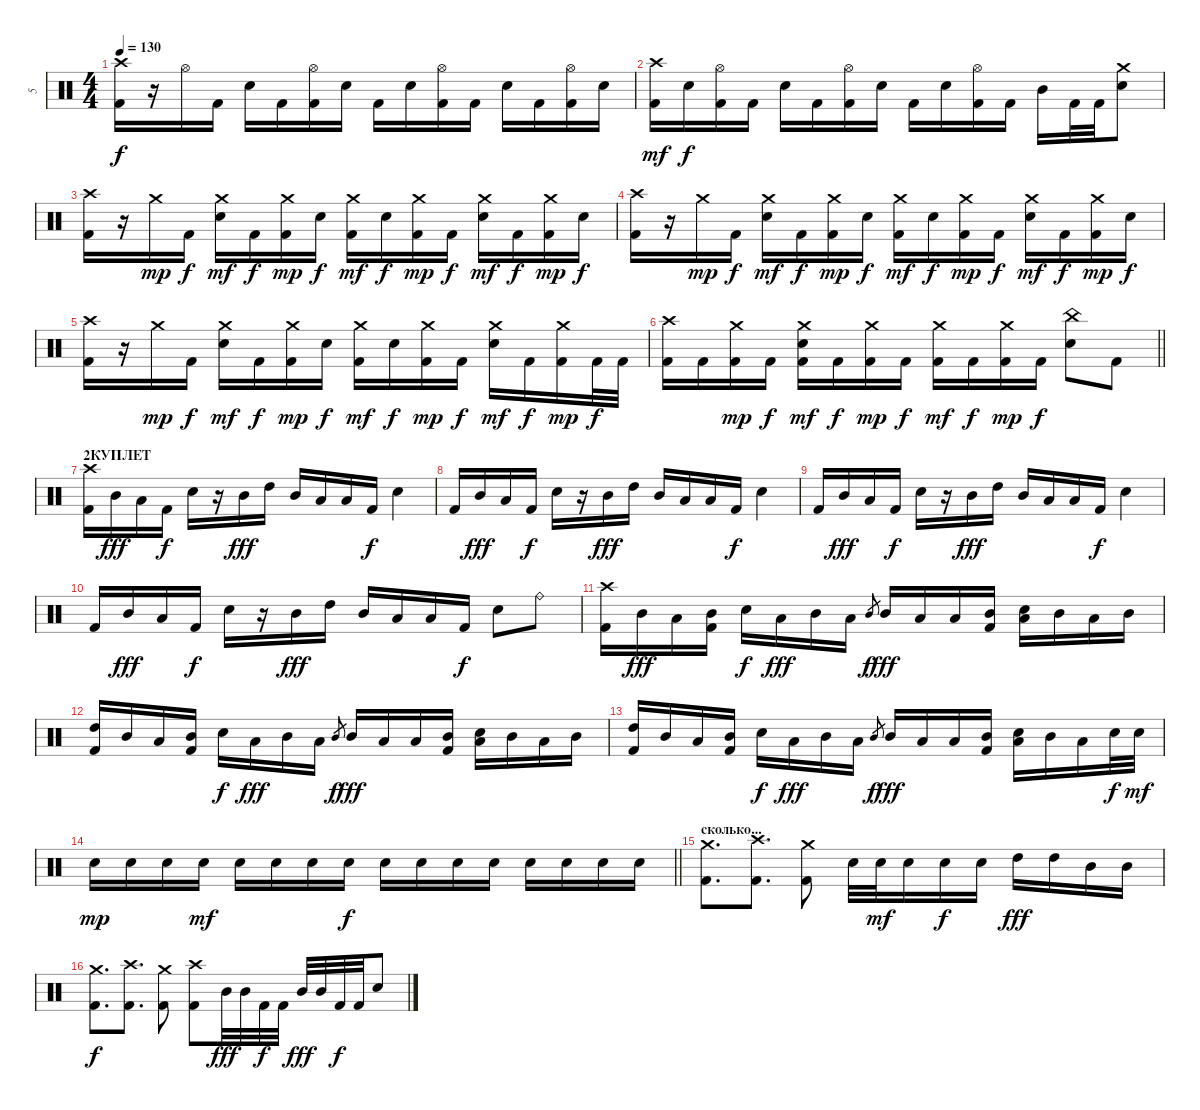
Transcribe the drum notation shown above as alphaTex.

\track ("5" "5") {instrument percussion}
\staff {score}
\articulation defaults
\ts (4 4)
\tempo 130
\clef neutral
\ks c
("Crash high (hit)" "Kick (hit) 2").16{dy f} r.16 "Hi-Hat (open)".16 "Kick (hit) 2".16 "Electric Snare (hit)".16 "Kick (hit) 2".16 ("Hi-Hat (open)" "Kick (hit) 2").16 "Electric Snare (hit)".16 "Kick (hit) 2".16 "Electric Snare (hit)".16 ("Hi-Hat (open)" "Kick (hit) 2").16 "Kick (hit) 2".16 "Electric Snare (hit)".16 "Kick (hit) 2".16 ("Hi-Hat (open)" "Kick (hit) 2").16 "Electric Snare (hit)".16 |
("Crash high (hit)" "Kick (hit) 2").16{dy mf} "Electric Snare (hit)".16{dy f} ("Hi-Hat (open)" "Kick (hit) 2").16 "Kick (hit) 2".16 "Electric Snare (hit)".16 "Kick (hit) 2".16 ("Hi-Hat (open)" "Kick (hit) 2").16 "Electric Snare (hit)".16 "Kick (hit) 2".16 "Electric Snare (hit)".16 ("Hi-Hat (open)" "Kick (hit) 2").16 "Kick (hit) 2".16 "Mid Tom (hit)".16 "Kick (hit) 2".32 "Kick (hit) 2".32 ("Crash medium (hit)" "Electric Snare (hit)").8 |
("Crash high (hit)" "Kick (hit) 2").16 r.16 "Crash medium (hit)".16{dy mp} "Kick (hit) 2".16{dy f} ("Crash medium (hit)" "Electric Snare (hit)").16{dy mf} "Kick (hit) 2".16{dy f} ("Crash medium (hit)" "Kick (hit) 2").16{dy mp} "Electric Snare (hit)".16{dy f} ("Crash medium (hit)" "Kick (hit) 2").16{dy mf} "Electric Snare (hit)".16{dy f} ("Crash medium (hit)" "Kick (hit) 2").16{dy mp} "Kick (hit) 2".16{dy f} ("Crash medium (hit)" "Electric Snare (hit)").16{dy mf} "Kick (hit) 2".16{dy f} ("Crash medium (hit)" "Kick (hit) 2").16{dy mp} "Electric Snare (hit)".16{dy f} |
("Crash high (hit)" "Kick (hit) 2").16 r.16 "Crash medium (hit)".16{dy mp} "Kick (hit) 2".16{dy f} ("Crash medium (hit)" "Electric Snare (hit)").16{dy mf} "Kick (hit) 2".16{dy f} ("Crash medium (hit)" "Kick (hit) 2").16{dy mp} "Electric Snare (hit)".16{dy f} ("Crash medium (hit)" "Kick (hit) 2").16{dy mf} "Electric Snare (hit)".16{dy f} ("Crash medium (hit)" "Kick (hit) 2").16{dy mp} "Kick (hit) 2".16{dy f} ("Crash medium (hit)" "Electric Snare (hit)").16{dy mf} "Kick (hit) 2".16{dy f} ("Crash medium (hit)" "Kick (hit) 2").16{dy mp} "Electric Snare (hit)".16{dy f} |
("Crash high (hit)" "Kick (hit) 2").16 r.16 "Crash medium (hit)".16{dy mp} "Kick (hit) 2".16{dy f} ("Crash medium (hit)" "Electric Snare (hit)").16{dy mf} "Kick (hit) 2".16{dy f} ("Crash medium (hit)" "Kick (hit) 2").16{dy mp} "Electric Snare (hit)".16{dy f} ("Crash medium (hit)" "Kick (hit) 2").16{dy mf} "Electric Snare (hit)".16{dy f} ("Crash medium (hit)" "Kick (hit) 2").16{dy mp} "Kick (hit) 2".16{dy f} ("Crash medium (hit)" "Electric Snare (hit)").16{dy mf} "Kick (hit) 2".16{dy f} ("Crash medium (hit)" "Kick (hit) 2").16{dy mp} "Kick (hit) 2".32{dy f} "Kick (hit) 2".32 |
\barLineRight lightlight
("Crash high (hit)" "Kick (hit) 2").16 "Kick (hit) 2".16 ("Crash medium (hit)" "Kick (hit) 2").16{dy mp} "Kick (hit) 2".16{dy f} ("Crash medium (hit)" "Electric Snare (hit)" "Kick (hit) 2").16{dy mf} "Kick (hit) 2".16{dy f} ("Crash medium (hit)" "Kick (hit) 2").16{dy mp} "Kick (hit) 2".16{dy f} ("Crash medium (hit)" "Kick (hit) 2").16{dy mf} "Kick (hit) 2".16{dy f} ("Crash medium (hit)" "Kick (hit) 2").16{dy mp} "Kick (hit) 2".16{dy f} ("China (hit)" "Electric Snare (hit)").8 "Kick (hit) 2".8 |
\section ("" "2КУПЛЕТ")
("Crash high (hit)" "Kick (hit) 2").16 "Mid Tom (hit)".16{dy fff} "Low Tom (hit)".16 "Kick (hit) 2".16{dy f} "Electric Snare (hit)".16 r.16 "Mid Tom (hit)".16{dy fff} "High Tom (hit)".16 "Mid Tom (hit)".16 "Low Tom (hit)".16 "Low Tom (hit)".16 "Kick (hit) 2".16{dy f} "Electric Snare (hit)".4 |
"Kick (hit) 2".16 "Mid Tom (hit)".16{dy fff} "Low Tom (hit)".16 "Kick (hit) 2".16{dy f} "Electric Snare (hit)".16 r.16 "Mid Tom (hit)".16{dy fff} "High Tom (hit)".16 "Mid Tom (hit)".16 "Low Tom (hit)".16 "Low Tom (hit)".16 "Kick (hit) 2".16{dy f} "Electric Snare (hit)".4 |
"Kick (hit) 2".16 "Mid Tom (hit)".16{dy fff} "Low Tom (hit)".16 "Kick (hit) 2".16{dy f} "Electric Snare (hit)".16 r.16 "Mid Tom (hit)".16{dy fff} "High Tom (hit)".16 "Mid Tom (hit)".16 "Low Tom (hit)".16 "Low Tom (hit)".16 "Kick (hit) 2".16{dy f} "Electric Snare (hit)".4 |
"Kick (hit) 2".16 "Mid Tom (hit)".16{dy fff} "Low Tom (hit)".16 "Kick (hit) 2".16{dy f} "Electric Snare (hit)".16 r.16 "Mid Tom (hit)".16{dy fff} "High Tom (hit)".16 "Mid Tom (hit)".16 "Low Tom (hit)".16 "Low Tom (hit)".16 "Kick (hit) 2".16{dy f} "Electric Snare (hit)".8 "Ride (bell)".8 |
("Crash high (hit)" "Kick (hit) 2").16 "Mid Tom (hit)".16{dy fff} "Low Tom (hit)".16 ("Mid Tom (hit)" "Kick (hit) 2").16 "Electric Snare (hit)".16{dy f} "Low Tom (hit)".16{dy fff} "Mid Tom (hit)".16 "Low Tom (hit)".16 "Mid Tom (hit)".8{gr dy f} "Mid Tom (hit)".16{dy fff} "Low Tom (hit)".16 "Low Tom (hit)".16 ("Mid Tom (hit)" "Kick (hit) 2").16 ("Low Tom (hit)" "Electric Snare (hit)").16 "Mid Tom (hit)".16 "Low Tom (hit)".16 "Mid Tom (hit)".16 |
("High Tom (hit)" "Kick (hit) 2").16 "Mid Tom (hit)".16 "Low Tom (hit)".16 ("Mid Tom (hit)" "Kick (hit) 2").16 "Electric Snare (hit)".16{dy f} "Low Tom (hit)".16{dy fff} "Mid Tom (hit)".16 "Low Tom (hit)".16 "Mid Tom (hit)".8{gr dy f} "Mid Tom (hit)".16{dy fff} "Low Tom (hit)".16 "Low Tom (hit)".16 ("Mid Tom (hit)" "Kick (hit) 2").16 ("Low Tom (hit)" "Electric Snare (hit)").16 "Mid Tom (hit)".16 "Low Tom (hit)".16 "Mid Tom (hit)".16 |
("High Tom (hit)" "Kick (hit) 2").16 "Mid Tom (hit)".16 "Low Tom (hit)".16 ("Mid Tom (hit)" "Kick (hit) 2").16 "Electric Snare (hit)".16{dy f} "Low Tom (hit)".16{dy fff} "Mid Tom (hit)".16 "Low Tom (hit)".16 "Mid Tom (hit)".8{gr dy f} "Mid Tom (hit)".16{dy fff} "Low Tom (hit)".16 "Low Tom (hit)".16 ("Mid Tom (hit)" "Kick (hit) 2").16 ("Low Tom (hit)" "Electric Snare (hit)").16 "Mid Tom (hit)".16 "Low Tom (hit)".16 "Electric Snare (hit)".32{dy f} "Electric Snare (hit)".32{dy mf} |
\barLineRight lightlight "Electric Snare (hit)".16{dy mp} "Electric Snare (hit)".16 "Electric Snare (hit)".16 "Electric Snare (hit)".16{dy mf} "Electric Snare (hit)".16 "Electric Snare (hit)".16 "Electric Snare (hit)".16 "Electric Snare (hit)".16{dy f} "Electric Snare (hit)".16 "Electric Snare (hit)".16 "Electric Snare (hit)".16 "Electric Snare (hit)".16 "Electric Snare (hit)".16 "Electric Snare (hit)".16 "Electric Snare (hit)".16 "Electric Snare (hit)".16
|
\section ("" "сколько...")
("Crash medium (hit)" "Kick (hit) 2").8{d} ("Crash high (hit)" "Kick (hit) 2").8{d} ("Crash medium (hit)" "Kick (hit) 2").8 "Electric Snare (hit)".32 "Electric Snare (hit)".32{dy mf} "Electric Snare (hit)".16 "Electric Snare (hit)".16{dy f} "Electric Snare (hit)".16 "High Tom (hit)".16{dy fff} "High Tom (hit)".16 "Mid Tom (hit)".16 "Mid Tom (hit)".16 |
("Crash medium (hit)" "Kick (hit) 2").8{d dy f} ("Crash high (hit)" "Kick (hit) 2").8{d} ("Crash medium (hit)" "Kick (hit) 2").8 ("Crash high (hit)" "Kick (hit) 2").8 "Mid Tom (hit)".32{dy fff} "Mid Tom (hit)".32 "Kick (hit) 2".32{dy f} "Kick (hit) 2".32 "Mid Tom (hit)".32{dy fff} "Mid Tom (hit)".32 "Kick (hit) 2".32{dy f} "Kick (hit) 2".32 "Electric Snare (hit)".8
